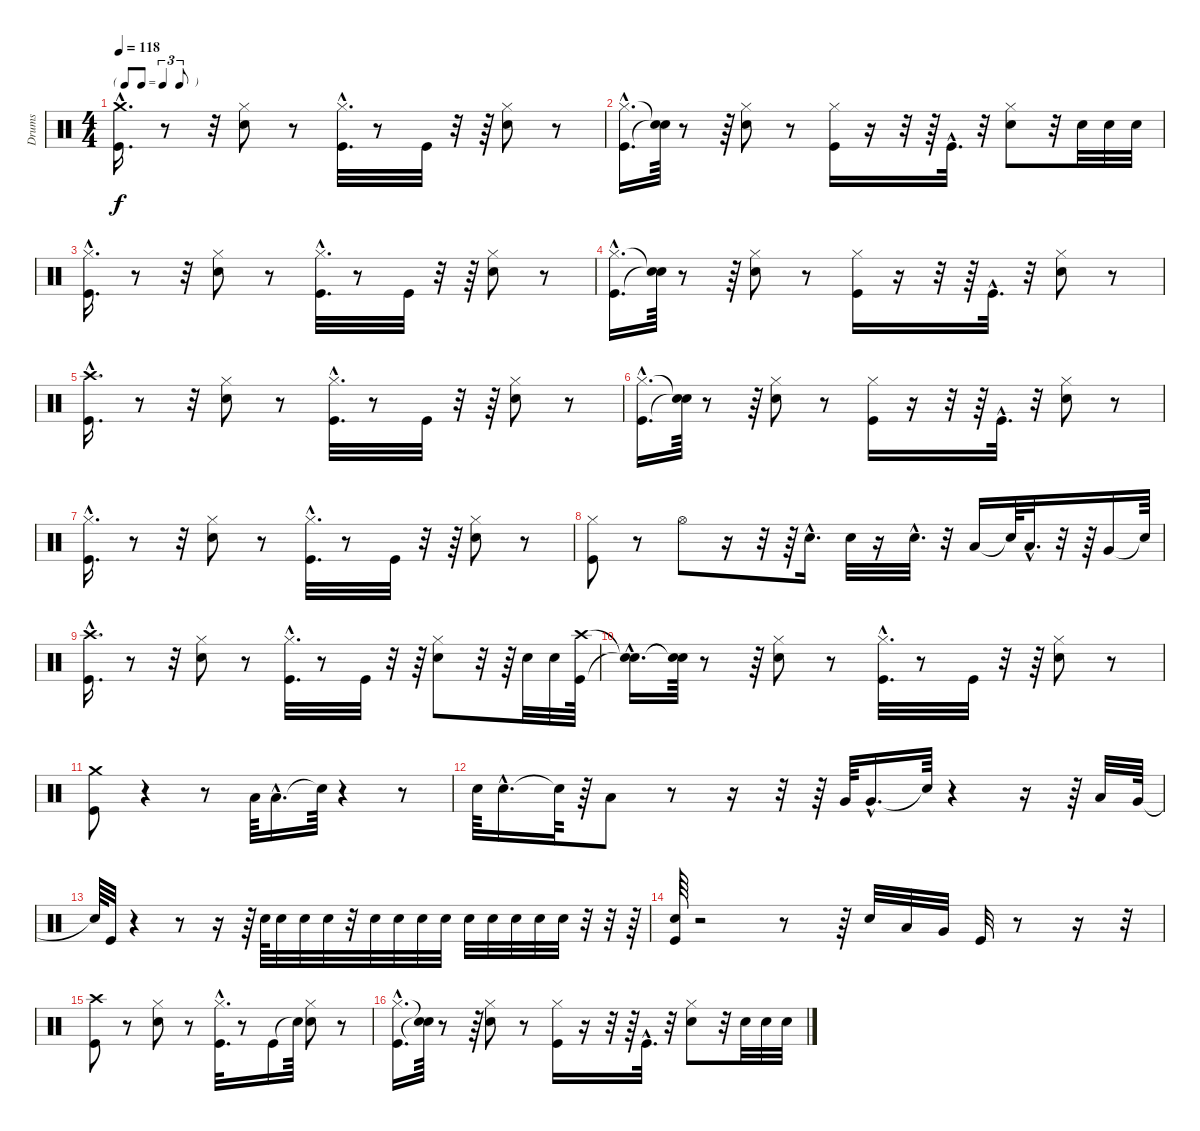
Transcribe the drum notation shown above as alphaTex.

\track ("Drums" "Drums") {instrument percussion}
\staff {score}
\articulation defaults
\ts (4 4)
\tf triplet8th
\tempo 118
\clef neutral
\ks c
("Kick (hit)"{hac} "Crash medium (hit)"{hac}).16{d dy f} r.8 r.32 ("Snare (hit) 2" "Hi-Hat (closed)").8 r.8 ("Hi-Hat (closed)"{hac} "Kick (hit)"{hac}).32{d} r.8 "Kick (hit)".32 r.32 r.64 ("Hi-Hat (closed)" "Snare (hit) 2").8 r.8 |
("Hi-Hat (closed)"{hac} "Kick (hit)"{hac}).16{d} ("Snare (hit)"{t} "Snare (hit)"{t}).64 r.8 r.64 ("Snare (hit) 2" "Hi-Hat (closed)").8 r.8 ("Kick (hit)" "Hi-Hat (closed)").16 r.16 r.32 r.64 "Kick (hit)"{hac}.32{d} r.32 ("Hi-Hat (closed)" "Snare (hit) 2").8 r.32 "Snare (hit) 2".32 "Snare (hit) 2".32 "Snare (hit) 2".32 |
("Kick (hit)"{hac} "Hi-Hat (closed)"{hac}).16{d} r.8 r.32 ("Snare (hit) 2" "Hi-Hat (closed)").8 r.8 ("Hi-Hat (closed)"{hac} "Kick (hit)"{hac}).32{d} r.8 "Kick (hit)".32 r.32 r.64 ("Hi-Hat (closed)" "Snare (hit) 2").8 r.8 |
("Hi-Hat (closed)"{hac} "Kick (hit)"{hac}).16{d} ("Snare (hit)"{t} "Snare (hit)"{t}).64 r.8 r.64 ("Snare (hit) 2" "Hi-Hat (closed)").8 r.8 ("Kick (hit)" "Hi-Hat (closed)").16 r.16 r.32 r.64 "Kick (hit)"{hac}.32{d} r.32 ("Hi-Hat (closed)" "Snare (hit) 2").8 r.8 |
("Kick (hit)"{hac} "Crash high (hit)"{hac}).16{d} r.8 r.32 ("Snare (hit) 2" "Hi-Hat (closed)").8 r.8 ("Hi-Hat (closed)"{hac} "Kick (hit)"{hac}).32{d} r.8 "Kick (hit)".32 r.32 r.64 ("Hi-Hat (closed)" "Snare (hit) 2").8 r.8 |
("Hi-Hat (closed)"{hac} "Kick (hit)"{hac}).16{d} ("Snare (hit)"{t} "Snare (hit)"{t}).64 r.8 r.64 ("Snare (hit) 2" "Hi-Hat (closed)").8 r.8 ("Kick (hit)" "Hi-Hat (closed)").16 r.16 r.32 r.64 "Kick (hit)"{hac}.32{d} r.32 ("Hi-Hat (closed)" "Snare (hit) 2").8 r.8 |
("Kick (hit)"{hac} "Hi-Hat (closed)"{hac}).16{d} r.8 r.32 ("Snare (hit) 2" "Hi-Hat (closed)").8 r.8 ("Hi-Hat (closed)"{hac} "Kick (hit)"{hac}).32{d} r.8 "Kick (hit)".32 r.32 r.64 ("Hi-Hat (closed)" "Snare (hit) 2").8 r.8 |
("Kick (hit)" "Hi-Hat (closed)").8 r.8 "Hi-Hat (open)".8 r.16 r.32 r.64 "Snare (hit) 2"{hac}.16{d} "Snare (hit) 2".32 r.16 "Snare (hit) 2"{hac}.32{d} r.32 "Low Tom (hit)".16 "Snare (hit)"{t}.64 "Low Tom (hit)"{hac}.32{d} r.32 r.64 "Very Low Tom (hit)".16 "Snare (hit)"{t}.64 |
("Kick (hit)"{hac} "Crash high (hit)"{hac}).16{d} r.8 r.32 ("Snare (hit) 2" "Hi-Hat (closed)").8 r.8 ("Hi-Hat (closed)"{hac} "Kick (hit)"{hac}).32{d} r.8 "Kick (hit)".32 r.32 r.64 ("Hi-Hat (closed)" "Snare (hit) 2").8 r.32 r.64 "Snare (hit) 2".32 "Snare (hit) 2".32 ("Crash high (hit)" "Kick (hit)").64 |
("Snare (hit)"{hac t} "Snare (hit)"{hac t}).16{d} ("Snare (hit)"{t} "Snare (hit)"{t}).64 r.8 r.64 ("Snare (hit) 2" "Hi-Hat (closed)").8 r.8 ("Hi-Hat (closed)"{hac} "Kick (hit)"{hac}).32{d} r.8 "Kick (hit)".32 r.32 r.64 ("Snare (hit) 2" "Hi-Hat (closed)").8 r.8 |
("Kick (hit)" "Crash medium (hit)").8 r.4 r.8 "Low Tom (hit)".64 "Low Tom (hit)"{hac}.16{d} "Snare (hit)"{t}.64 r.4 r.8 |
"Snare (hit) 2".64 "Snare (hit) 2"{hac}.16{d} "Snare (hit)"{t}.64 r.64 "Low Tom (hit)".8 r.8 r.16 r.32 r.64 "Very Low Tom (hit)".64 "Very Low Tom (hit)"{hac}.16{d} "Snare (hit)"{t}.64 r.4 r.16 r.64 "Low Tom (hit)".32 "Very Low Tom (hit)".64 |
"Snare (hit)"{t}.64 "Kick (hit)".32 r.4 r.8 r.16 r.64 "Snare (hit) 2".64 "Snare (hit) 2".32 "Snare (hit) 2".32 "Snare (hit) 2".32 r.32 "Snare (hit) 2".32 "Snare (hit) 2".32 "Snare (hit) 2".32 "Snare (hit) 2".32 "Snare (hit) 2".32 "Snare (hit) 2".32 "Snare (hit) 2".32 "Snare (hit) 2".32 "Snare (hit) 2".32 r.32 r.32 r.64 |
("Kick (hit)" "Snare (hit) 2").64 r.2 r.8 r.64 "Snare (hit) 2".32 "Low Tom (hit)".32 "Very Low Tom (hit)".32 "Kick (hit)".32 r.8 r.16 r.32 |
("Kick (hit)" "Crash high (hit)").8 r.8 ("Hi-Hat (closed)" "Snare (hit) 2").8 r.8 ("Hi-Hat (closed)"{hac} "Kick (hit)"{hac}).32{d} r.8 "Kick (hit)".16 "Snare (hit)"{t}.64 ("Hi-Hat (closed)" "Snare (hit) 2").8 r.8 |
("Kick (hit)"{hac} "Hi-Hat (closed)"{hac}).16{d} ("Snare (hit)"{t} "Snare (hit)"{t}).64 r.8 r.64 ("Snare (hit) 2" "Hi-Hat (closed)").8 r.8 ("Kick (hit)" "Hi-Hat (closed)").16 r.16 r.32 r.64 "Kick (hit)"{hac}.32{d} r.32 ("Snare (hit) 2" "Hi-Hat (closed)").8 r.32 "Snare (hit) 2".32 "Snare (hit) 2".32 "Snare (hit) 2".32
